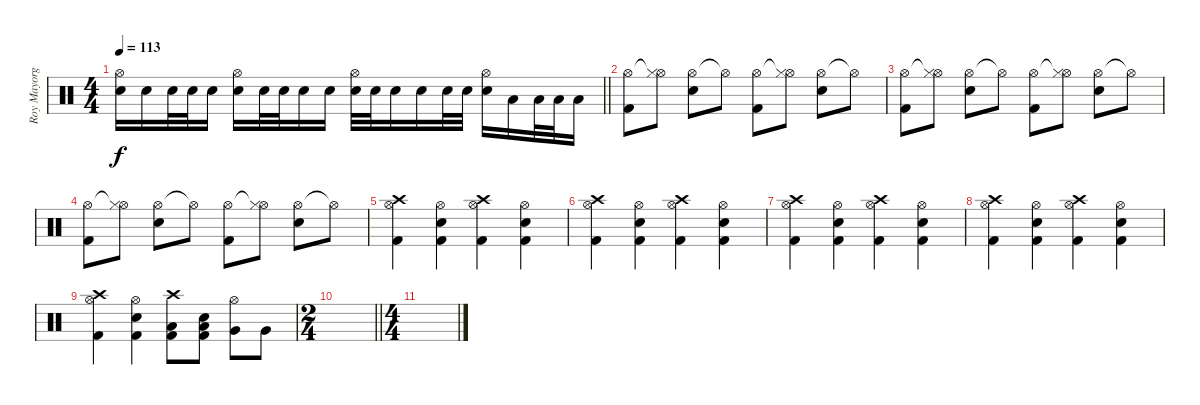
\track ("Roy Mayorga" "Roy Mayorg") {instrument percussion}
\staff {score}
\articulation defaults
\ts (4 4)
\tempo 113
\clef neutral
\barLineRight lightlight
\ks c
("Hi-Hat (open)" "Electric Snare (hit)").16{dy f} "Electric Snare (hit)".16 "Electric Snare (hit)".32 "Electric Snare (hit)".32 "Electric Snare (hit)".16 ("Hi-Hat (open)" "Electric Snare (hit)").16 "Electric Snare (hit)".32 "Electric Snare (hit)".32 "Electric Snare (hit)".16 "Electric Snare (hit)".16 ("Hi-Hat (open)" "Electric Snare (hit)").32 "Electric Snare (hit)".32 "Electric Snare (hit)".16 "Electric Snare (hit)".16 "Electric Snare (hit)".32 "Electric Snare (hit)".32 ("Hi-Hat (open)" "Electric Snare (hit)").16 "Low Tom (hit)".16 "Low Tom (hit)".32 "Low Tom (hit)".32 "Low Tom (hit)".16 |
("Hi-Hat (open)" "Kick (hit) 2").8 ("Hi-Hat (open)"{t} "Hi-Hat (closed)").8 ("Hi-Hat (open)" "Snare (hit) 2").8 "Hi-Hat (open)"{t}.8 ("Hi-Hat (open)" "Kick (hit) 2").8 ("Hi-Hat (open)"{t} "Hi-Hat (closed)").8 ("Hi-Hat (open)" "Snare (hit) 2").8 "Hi-Hat (open)"{t}.8 |
("Hi-Hat (open)" "Kick (hit) 2").8 ("Hi-Hat (open)"{t} "Hi-Hat (closed)").8 ("Hi-Hat (open)" "Snare (hit) 2").8 "Hi-Hat (open)"{t}.8 ("Hi-Hat (open)" "Kick (hit) 2").8 ("Hi-Hat (open)"{t} "Hi-Hat (closed)").8 ("Hi-Hat (open)" "Snare (hit) 2").8 "Hi-Hat (open)"{t}.8 |
("Hi-Hat (open)" "Kick (hit) 2").8 ("Hi-Hat (open)"{t} "Hi-Hat (closed)").8 ("Hi-Hat (open)" "Snare (hit) 2").8 "Hi-Hat (open)"{t}.8 ("Hi-Hat (open)" "Kick (hit) 2").8 ("Hi-Hat (open)"{t} "Hi-Hat (closed)").8 ("Hi-Hat (open)" "Snare (hit) 2").8 "Hi-Hat (open)"{t}.8 |
("Crash high (hit)" "Hi-Hat (open)" "Kick (hit) 2").4 ("Hi-Hat (open)" "Snare (hit) 2" "Kick (hit) 2").4 ("Crash high (hit)" "Hi-Hat (open)" "Kick (hit) 2").4 ("Hi-Hat (open)" "Snare (hit) 2" "Kick (hit) 2").4 |
("Crash high (hit)" "Hi-Hat (open)" "Kick (hit) 2").4 ("Hi-Hat (open)" "Snare (hit) 2" "Kick (hit) 2").4 ("Crash high (hit)" "Hi-Hat (open)" "Kick (hit) 2").4 ("Hi-Hat (open)" "Snare (hit) 2" "Kick (hit) 2").4 |
("Crash high (hit)" "Hi-Hat (open)" "Kick (hit) 2").4 ("Hi-Hat (open)" "Snare (hit) 2" "Kick (hit) 2").4 ("Crash high (hit)" "Hi-Hat (open)" "Kick (hit) 2").4 ("Hi-Hat (open)" "Snare (hit) 2" "Kick (hit) 2").4 |
("Crash high (hit)" "Hi-Hat (open)" "Kick (hit) 2").4 ("Hi-Hat (open)" "Snare (hit) 2" "Kick (hit) 2").4 ("Crash high (hit)" "Hi-Hat (open)" "Kick (hit) 2").4 ("Hi-Hat (open)" "Snare (hit) 2" "Kick (hit) 2").4 |
("Crash high (hit)" "Hi-Hat (open)" "Kick (hit) 2").4 ("Hi-Hat (open)" "Snare (hit) 2" "Kick (hit) 2").4 ("Crash high (hit)" "Low Tom (hit)" "Kick (hit) 2").8 ("Low Tom (hit)" "Snare (hit) 2" "Kick (hit) 2").8 ("Hi-Hat (open)" "Very Low Tom (hit)").8 "Very Low Tom (hit)".8 |
\ts (2 4)
\barLineRight lightlight
|
\ts (4 4)
